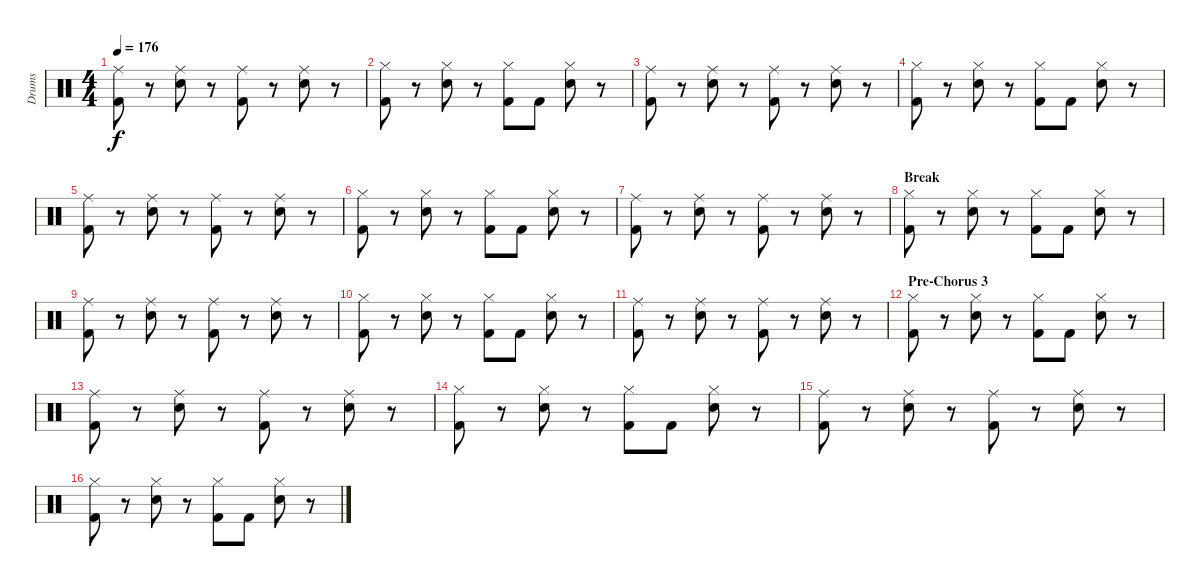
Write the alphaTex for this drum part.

\track ("Drums" "Drums") {instrument percussion}
\staff {score}
\articulation defaults
\ts (4 4)
\tempo 176
\clef neutral
\ks c
("Ride (middle)" "Kick (hit) 2").8{dy f} r.8 ("Ride (middle)" "Electric Snare (hit)").8 r.8 ("Ride (middle)" "Kick (hit) 2").8 r.8 ("Ride (middle)" "Electric Snare (hit)").8 r.8 |
("Hi-Hat (closed)" "Kick (hit) 2").8 r.8 ("Hi-Hat (closed)" "Electric Snare (hit)").8 r.8 ("Hi-Hat (closed)" "Kick (hit) 2").8 "Kick (hit) 2".8 ("Hi-Hat (closed)" "Electric Snare (hit)").8 r.8 |
("Ride (middle)" "Kick (hit) 2").8 r.8 ("Ride (middle)" "Electric Snare (hit)").8 r.8 ("Ride (middle)" "Kick (hit) 2").8 r.8 ("Ride (middle)" "Electric Snare (hit)").8 r.8 |
("Hi-Hat (closed)" "Kick (hit) 2").8 r.8 ("Hi-Hat (closed)" "Electric Snare (hit)").8 r.8 ("Hi-Hat (closed)" "Kick (hit) 2").8 "Kick (hit) 2".8 ("Hi-Hat (closed)" "Electric Snare (hit)").8 r.8 |
("Ride (middle)" "Kick (hit) 2").8 r.8 ("Ride (middle)" "Electric Snare (hit)").8 r.8 ("Ride (middle)" "Kick (hit) 2").8 r.8 ("Ride (middle)" "Electric Snare (hit)").8 r.8 |
("Hi-Hat (closed)" "Kick (hit) 2").8 r.8 ("Hi-Hat (closed)" "Electric Snare (hit)").8 r.8 ("Hi-Hat (closed)" "Kick (hit) 2").8 "Kick (hit) 2".8 ("Hi-Hat (closed)" "Electric Snare (hit)").8 r.8 |
("Ride (middle)" "Kick (hit) 2").8 r.8 ("Ride (middle)" "Electric Snare (hit)").8 r.8 ("Ride (middle)" "Kick (hit) 2").8 r.8 ("Ride (middle)" "Electric Snare (hit)").8 r.8 |
\section ("" "Break")
("Hi-Hat (closed)" "Kick (hit) 2").8 r.8 ("Hi-Hat (closed)" "Electric Snare (hit)").8 r.8 ("Hi-Hat (closed)" "Kick (hit) 2").8 "Kick (hit) 2".8 ("Hi-Hat (closed)" "Electric Snare (hit)").8 r.8 |
("Ride (middle)" "Kick (hit) 2").8 r.8 ("Ride (middle)" "Electric Snare (hit)").8 r.8 ("Ride (middle)" "Kick (hit) 2").8 r.8 ("Ride (middle)" "Electric Snare (hit)").8 r.8 |
("Hi-Hat (closed)" "Kick (hit) 2").8 r.8 ("Hi-Hat (closed)" "Electric Snare (hit)").8 r.8 ("Hi-Hat (closed)" "Kick (hit) 2").8 "Kick (hit) 2".8 ("Hi-Hat (closed)" "Electric Snare (hit)").8 r.8 |
("Ride (middle)" "Kick (hit) 2").8 r.8 ("Ride (middle)" "Electric Snare (hit)").8 r.8 ("Ride (middle)" "Kick (hit) 2").8 r.8 ("Ride (middle)" "Electric Snare (hit)").8 r.8 |
\section ("" "Pre-Chorus 3")
("Hi-Hat (closed)" "Kick (hit) 2").8 r.8 ("Hi-Hat (closed)" "Electric Snare (hit)").8 r.8 ("Hi-Hat (closed)" "Kick (hit) 2").8 "Kick (hit) 2".8 ("Hi-Hat (closed)" "Electric Snare (hit)").8 r.8 |
("Ride (middle)" "Kick (hit) 2").8 r.8 ("Ride (middle)" "Electric Snare (hit)").8 r.8 ("Ride (middle)" "Kick (hit) 2").8 r.8 ("Ride (middle)" "Electric Snare (hit)").8 r.8 |
("Hi-Hat (closed)" "Kick (hit) 2").8 r.8 ("Hi-Hat (closed)" "Electric Snare (hit)").8 r.8 ("Hi-Hat (closed)" "Kick (hit) 2").8 "Kick (hit) 2".8 ("Hi-Hat (closed)" "Electric Snare (hit)").8 r.8 |
("Ride (middle)" "Kick (hit) 2").8 r.8 ("Ride (middle)" "Electric Snare (hit)").8 r.8 ("Ride (middle)" "Kick (hit) 2").8 r.8 ("Ride (middle)" "Electric Snare (hit)").8 r.8 |
("Hi-Hat (closed)" "Kick (hit) 2").8 r.8 ("Hi-Hat (closed)" "Electric Snare (hit)").8 r.8 ("Hi-Hat (closed)" "Kick (hit) 2").8 "Kick (hit) 2".8 ("Hi-Hat (closed)" "Electric Snare (hit)").8 r.8
